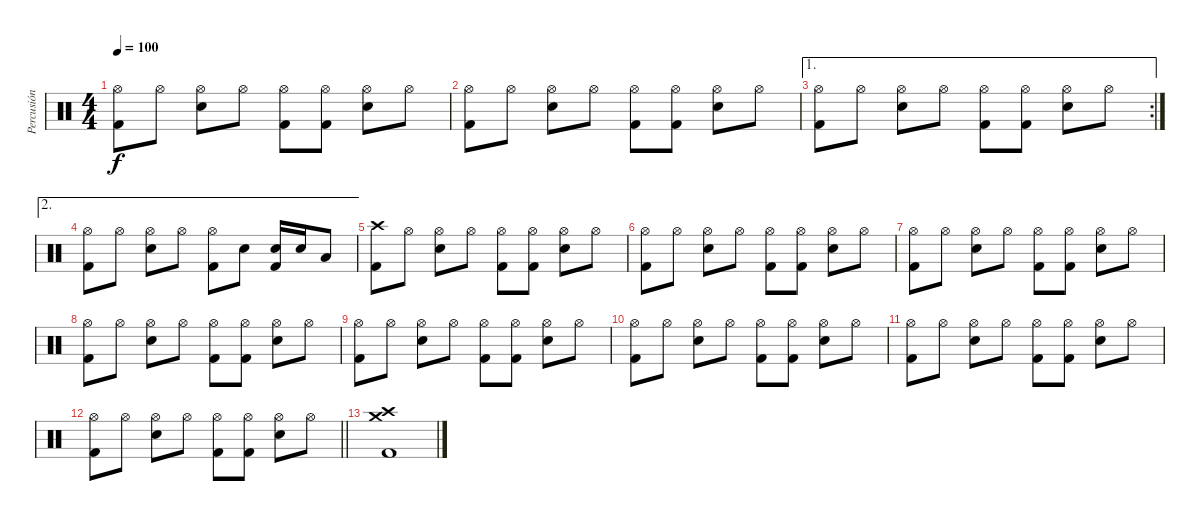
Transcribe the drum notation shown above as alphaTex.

\track ("Percusión" "Percusión") {instrument percussion}
\staff {score}
\articulation defaults
\ts (4 4)
\tempo 100
\clef neutral
\ks c
("Hi-Hat (open)" "Kick (hit) 2").8{dy f} "Hi-Hat (open)".8 ("Hi-Hat (open)" "Snare (hit) 2").8 "Hi-Hat (open)".8 ("Hi-Hat (open)" "Kick (hit) 2").8 ("Hi-Hat (open)" "Kick (hit) 2").8 ("Hi-Hat (open)" "Snare (hit) 2").8 "Hi-Hat (open)".8 |
("Hi-Hat (open)" "Kick (hit) 2").8 "Hi-Hat (open)".8 ("Hi-Hat (open)" "Snare (hit) 2").8 "Hi-Hat (open)".8 ("Hi-Hat (open)" "Kick (hit) 2").8 ("Hi-Hat (open)" "Kick (hit) 2").8 ("Hi-Hat (open)" "Snare (hit) 2").8 "Hi-Hat (open)".8 |
\ae 1
\rc 2
("Hi-Hat (open)" "Kick (hit) 2").8 "Hi-Hat (open)".8 ("Hi-Hat (open)" "Snare (hit) 2").8 "Hi-Hat (open)".8 ("Hi-Hat (open)" "Kick (hit) 2").8 ("Hi-Hat (open)" "Kick (hit) 2").8 ("Hi-Hat (open)" "Snare (hit) 2").8 "Hi-Hat (open)".8 |
\ae 2
("Hi-Hat (open)" "Kick (hit) 2").8 "Hi-Hat (open)".8 ("Hi-Hat (open)" "Snare (hit) 2").8 "Hi-Hat (open)".8 ("Hi-Hat (open)" "Kick (hit) 2").8 "Snare (hit) 2".8 ("Snare (hit) 2" "Kick (hit) 2").16 "Snare (hit) 2".16 "Low Tom (hit)".8 |
("Crash high (hit)" "Kick (hit) 2").8 "Hi-Hat (open)".8 ("Hi-Hat (open)" "Snare (hit) 2").8 "Hi-Hat (open)".8 ("Hi-Hat (open)" "Kick (hit) 2").8 ("Hi-Hat (open)" "Kick (hit) 2").8 ("Hi-Hat (open)" "Snare (hit) 2").8 "Hi-Hat (open)".8 |
("Hi-Hat (open)" "Kick (hit) 2").8 "Hi-Hat (open)".8 ("Hi-Hat (open)" "Snare (hit) 2").8 "Hi-Hat (open)".8 ("Hi-Hat (open)" "Kick (hit) 2").8 ("Hi-Hat (open)" "Kick (hit) 2").8 ("Hi-Hat (open)" "Snare (hit) 2").8 "Hi-Hat (open)".8 |
("Hi-Hat (open)" "Kick (hit) 2").8 "Hi-Hat (open)".8 ("Hi-Hat (open)" "Snare (hit) 2").8 "Hi-Hat (open)".8 ("Hi-Hat (open)" "Kick (hit) 2").8 ("Hi-Hat (open)" "Kick (hit) 2").8 ("Hi-Hat (open)" "Snare (hit) 2").8 "Hi-Hat (open)".8 |
("Hi-Hat (open)" "Kick (hit) 2").8 "Hi-Hat (open)".8 ("Hi-Hat (open)" "Snare (hit) 2").8 "Hi-Hat (open)".8 ("Hi-Hat (open)" "Kick (hit) 2").8 ("Hi-Hat (open)" "Kick (hit) 2").8 ("Hi-Hat (open)" "Snare (hit) 2").8 "Hi-Hat (open)".8 |
("Hi-Hat (open)" "Kick (hit) 2").8 "Hi-Hat (open)".8 ("Hi-Hat (open)" "Snare (hit) 2").8 "Hi-Hat (open)".8 ("Hi-Hat (open)" "Kick (hit) 2").8 ("Hi-Hat (open)" "Kick (hit) 2").8 ("Hi-Hat (open)" "Snare (hit) 2").8 "Hi-Hat (open)".8 |
("Hi-Hat (open)" "Kick (hit) 2").8 "Hi-Hat (open)".8 ("Hi-Hat (open)" "Snare (hit) 2").8 "Hi-Hat (open)".8 ("Hi-Hat (open)" "Kick (hit) 2").8 ("Hi-Hat (open)" "Kick (hit) 2").8 ("Hi-Hat (open)" "Snare (hit) 2").8 "Hi-Hat (open)".8 |
("Hi-Hat (open)" "Kick (hit) 2").8 "Hi-Hat (open)".8 ("Hi-Hat (open)" "Snare (hit) 2").8 "Hi-Hat (open)".8 ("Hi-Hat (open)" "Kick (hit) 2").8 ("Hi-Hat (open)" "Kick (hit) 2").8 ("Hi-Hat (open)" "Snare (hit) 2").8 "Hi-Hat (open)".8 |
\barLineRight lightlight
("Hi-Hat (open)" "Kick (hit) 2").8 "Hi-Hat (open)".8 ("Hi-Hat (open)" "Snare (hit) 2").8 "Hi-Hat (open)".8 ("Hi-Hat (open)" "Kick (hit) 2").8 ("Hi-Hat (open)" "Kick (hit) 2").8 ("Hi-Hat (open)" "Snare (hit) 2").8 "Hi-Hat (open)".8 |
("Crash medium (hit)" "Crash high (hit)" "Kick (hit) 2").1
